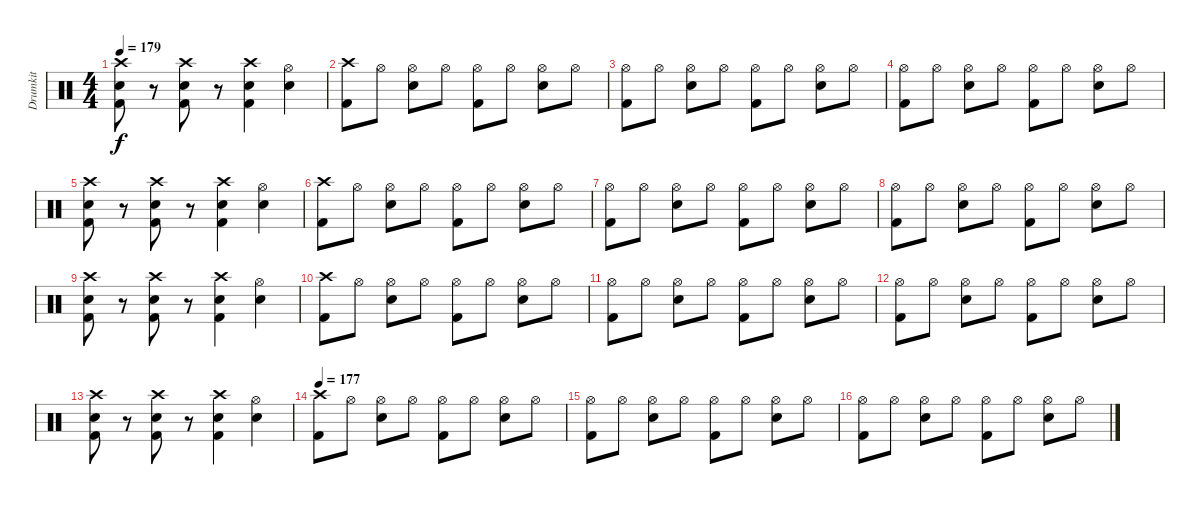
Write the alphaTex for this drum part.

\track ("Drumkit" "Drumkit") {instrument percussion}
\staff {score}
\articulation defaults
\ts (4 4)
\tempo 179
\clef neutral
\ks c
("Snare (hit) 2" "Kick (hit) 2" "Crash high (hit)").8{dy f} r.8 ("Snare (hit) 2" "Kick (hit) 2" "Crash high (hit)").8 r.8 ("Snare (hit) 2" "Kick (hit) 2" "Crash high (hit)").4 ("Snare (hit) 2" "Hi-Hat (open)").4 |
("Crash high (hit)" "Kick (hit) 2").8 "Hi-Hat (open)".8 ("Snare (hit) 2" "Hi-Hat (open)").8 "Hi-Hat (open)".8 ("Kick (hit) 2" "Hi-Hat (open)").8 "Hi-Hat (open)".8 ("Snare (hit) 2" "Hi-Hat (open)").8 "Hi-Hat (open)".8 |
("Kick (hit) 2" "Hi-Hat (open)").8 "Hi-Hat (open)".8 ("Snare (hit) 2" "Hi-Hat (open)").8 "Hi-Hat (open)".8 ("Kick (hit) 2" "Hi-Hat (open)").8 "Hi-Hat (open)".8 ("Snare (hit) 2" "Hi-Hat (open)").8 "Hi-Hat (open)".8 |
("Kick (hit) 2" "Hi-Hat (open)").8 "Hi-Hat (open)".8 ("Snare (hit) 2" "Hi-Hat (open)").8 "Hi-Hat (open)".8 ("Kick (hit) 2" "Hi-Hat (open)").8 "Hi-Hat (open)".8 ("Snare (hit) 2" "Hi-Hat (open)").8 "Hi-Hat (open)".8 |
("Snare (hit) 2" "Kick (hit) 2" "Crash high (hit)").8 r.8 ("Snare (hit) 2" "Kick (hit) 2" "Crash high (hit)").8 r.8 ("Snare (hit) 2" "Kick (hit) 2" "Crash high (hit)").4 ("Snare (hit) 2" "Hi-Hat (open)").4 |
("Crash high (hit)" "Kick (hit) 2").8 "Hi-Hat (open)".8 ("Snare (hit) 2" "Hi-Hat (open)").8 "Hi-Hat (open)".8 ("Kick (hit) 2" "Hi-Hat (open)").8 "Hi-Hat (open)".8 ("Snare (hit) 2" "Hi-Hat (open)").8 "Hi-Hat (open)".8 |
("Kick (hit) 2" "Hi-Hat (open)").8 "Hi-Hat (open)".8 ("Snare (hit) 2" "Hi-Hat (open)").8 "Hi-Hat (open)".8 ("Kick (hit) 2" "Hi-Hat (open)").8 "Hi-Hat (open)".8 ("Snare (hit) 2" "Hi-Hat (open)").8 "Hi-Hat (open)".8 |
("Kick (hit) 2" "Hi-Hat (open)").8 "Hi-Hat (open)".8 ("Snare (hit) 2" "Hi-Hat (open)").8 "Hi-Hat (open)".8 ("Kick (hit) 2" "Hi-Hat (open)").8 "Hi-Hat (open)".8 ("Snare (hit) 2" "Hi-Hat (open)").8 "Hi-Hat (open)".8 |
("Snare (hit) 2" "Kick (hit) 2" "Crash high (hit)").8 r.8 ("Snare (hit) 2" "Kick (hit) 2" "Crash high (hit)").8 r.8 ("Snare (hit) 2" "Kick (hit) 2" "Crash high (hit)").4 ("Snare (hit) 2" "Hi-Hat (open)").4 |
("Crash high (hit)" "Kick (hit) 2").8 "Hi-Hat (open)".8 ("Snare (hit) 2" "Hi-Hat (open)").8 "Hi-Hat (open)".8 ("Kick (hit) 2" "Hi-Hat (open)").8 "Hi-Hat (open)".8 ("Snare (hit) 2" "Hi-Hat (open)").8 "Hi-Hat (open)".8 |
("Kick (hit) 2" "Hi-Hat (open)").8 "Hi-Hat (open)".8 ("Snare (hit) 2" "Hi-Hat (open)").8 "Hi-Hat (open)".8 ("Kick (hit) 2" "Hi-Hat (open)").8 "Hi-Hat (open)".8 ("Snare (hit) 2" "Hi-Hat (open)").8 "Hi-Hat (open)".8 |
("Kick (hit) 2" "Hi-Hat (open)").8 "Hi-Hat (open)".8 ("Snare (hit) 2" "Hi-Hat (open)").8 "Hi-Hat (open)".8 ("Kick (hit) 2" "Hi-Hat (open)").8 "Hi-Hat (open)".8 ("Snare (hit) 2" "Hi-Hat (open)").8 "Hi-Hat (open)".8 |
("Snare (hit) 2" "Kick (hit) 2" "Crash high (hit)").8 r.8 ("Snare (hit) 2" "Kick (hit) 2" "Crash high (hit)").8 r.8 ("Snare (hit) 2" "Kick (hit) 2" "Crash high (hit)").4 ("Snare (hit) 2" "Hi-Hat (open)").4 |
\tempo 177
("Crash high (hit)" "Kick (hit) 2").8 "Hi-Hat (open)".8 ("Snare (hit) 2" "Hi-Hat (open)").8 "Hi-Hat (open)".8 ("Kick (hit) 2" "Hi-Hat (open)").8 "Hi-Hat (open)".8 ("Snare (hit) 2" "Hi-Hat (open)").8 "Hi-Hat (open)".8 |
("Kick (hit) 2" "Hi-Hat (open)").8 "Hi-Hat (open)".8 ("Snare (hit) 2" "Hi-Hat (open)").8 "Hi-Hat (open)".8 ("Kick (hit) 2" "Hi-Hat (open)").8 "Hi-Hat (open)".8 ("Snare (hit) 2" "Hi-Hat (open)").8 "Hi-Hat (open)".8 |
("Kick (hit) 2" "Hi-Hat (open)").8 "Hi-Hat (open)".8 ("Snare (hit) 2" "Hi-Hat (open)").8 "Hi-Hat (open)".8 ("Kick (hit) 2" "Hi-Hat (open)").8 "Hi-Hat (open)".8 ("Snare (hit) 2" "Hi-Hat (open)").8 "Hi-Hat (open)".8
